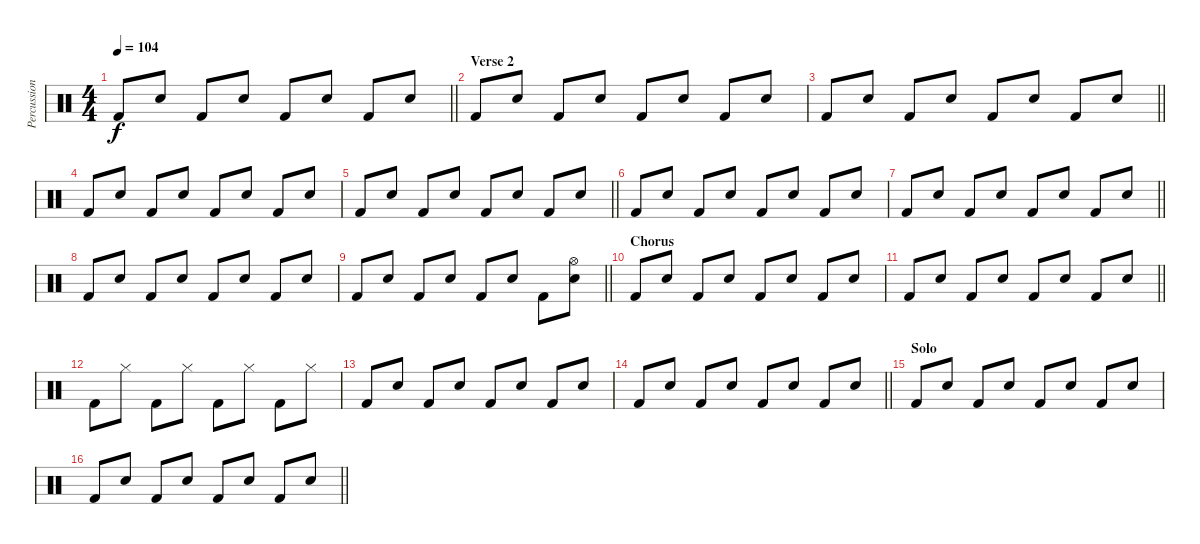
\track ("Percussion" "Percussion") {instrument percussion}
\staff {score}
\articulation defaults
\ts (4 4)
\tempo 104
\clef neutral
\barLineRight lightlight
\ks c "Kick (hit) 2".8{dy f} "Electric Snare (hit)".8 "Kick (hit) 2".8 "Electric Snare (hit)".8 "Kick (hit) 2".8 "Electric Snare (hit)".8 "Kick (hit) 2".8 "Electric Snare (hit)".8
|
\section ("" "Verse 2")
"Kick (hit) 2".8 "Electric Snare (hit)".8 "Kick (hit) 2".8 "Electric Snare (hit)".8 "Kick (hit) 2".8 "Electric Snare (hit)".8 "Kick (hit) 2".8 "Electric Snare (hit)".8 |
\barLineRight lightlight "Kick (hit) 2".8 "Electric Snare (hit)".8 "Kick (hit) 2".8 "Electric Snare (hit)".8 "Kick (hit) 2".8 "Electric Snare (hit)".8 "Kick (hit) 2".8 "Electric Snare (hit)".8
|
"Kick (hit) 2".8 "Electric Snare (hit)".8 "Kick (hit) 2".8 "Electric Snare (hit)".8 "Kick (hit) 2".8 "Electric Snare (hit)".8 "Kick (hit) 2".8 "Electric Snare (hit)".8 |
\barLineRight lightlight "Kick (hit) 2".8 "Electric Snare (hit)".8 "Kick (hit) 2".8 "Electric Snare (hit)".8 "Kick (hit) 2".8 "Electric Snare (hit)".8 "Kick (hit) 2".8 "Electric Snare (hit)".8
|
"Kick (hit) 2".8 "Electric Snare (hit)".8 "Kick (hit) 2".8 "Electric Snare (hit)".8 "Kick (hit) 2".8 "Electric Snare (hit)".8 "Kick (hit) 2".8 "Electric Snare (hit)".8 |
\barLineRight lightlight "Kick (hit) 2".8 "Electric Snare (hit)".8 "Kick (hit) 2".8 "Electric Snare (hit)".8 "Kick (hit) 2".8 "Electric Snare (hit)".8 "Kick (hit) 2".8 "Electric Snare (hit)".8
|
"Kick (hit) 2".8 "Electric Snare (hit)".8 "Kick (hit) 2".8 "Electric Snare (hit)".8 "Kick (hit) 2".8 "Electric Snare (hit)".8 "Kick (hit) 2".8 "Electric Snare (hit)".8 |
\barLineRight lightlight "Kick (hit) 2".8 "Electric Snare (hit)".8 "Kick (hit) 2".8 "Electric Snare (hit)".8 "Kick (hit) 2".8 "Electric Snare (hit)".8 "Kick (hit) 2".8
("Hi-Hat (open)" "Electric Snare (hit)").8 |
\section ("" "Chorus")
"Kick (hit) 2".8 "Electric Snare (hit)".8 "Kick (hit) 2".8 "Electric Snare (hit)".8 "Kick (hit) 2".8 "Electric Snare (hit)".8 "Kick (hit) 2".8 "Electric Snare (hit)".8 |
\barLineRight lightlight "Kick (hit) 2".8 "Electric Snare (hit)".8 "Kick (hit) 2".8 "Electric Snare (hit)".8 "Kick (hit) 2".8 "Electric Snare (hit)".8 "Kick (hit) 2".8 "Electric Snare (hit)".8
|
"Kick (hit) 2".8 "Hi-Hat (closed)".8 "Kick (hit) 2".8 "Hi-Hat (closed)".8 "Kick (hit) 2".8 "Hi-Hat (closed)".8 "Kick (hit) 2".8 "Hi-Hat (closed)".8 |
"Kick (hit) 2".8 "Electric Snare (hit)".8 "Kick (hit) 2".8 "Electric Snare (hit)".8 "Kick (hit) 2".8 "Electric Snare (hit)".8 "Kick (hit) 2".8 "Electric Snare (hit)".8 |
\barLineRight lightlight "Kick (hit) 2".8 "Electric Snare (hit)".8 "Kick (hit) 2".8 "Electric Snare (hit)".8 "Kick (hit) 2".8 "Electric Snare (hit)".8 "Kick (hit) 2".8 "Electric Snare (hit)".8
|
\section ("" "Solo")
"Kick (hit) 2".8 "Electric Snare (hit)".8 "Kick (hit) 2".8 "Electric Snare (hit)".8 "Kick (hit) 2".8 "Electric Snare (hit)".8 "Kick (hit) 2".8 "Electric Snare (hit)".8 |
\barLineRight lightlight "Kick (hit) 2".8 "Electric Snare (hit)".8 "Kick (hit) 2".8 "Electric Snare (hit)".8 "Kick (hit) 2".8 "Electric Snare (hit)".8 "Kick (hit) 2".8 "Electric Snare (hit)".8
